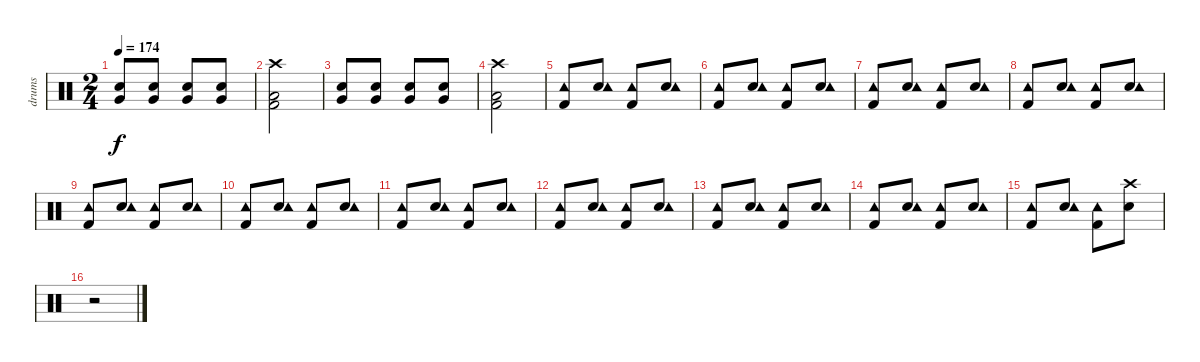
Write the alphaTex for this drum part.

\track ("drums" "drums") {instrument percussion}
\staff {score}
\articulation defaults
\ts (2 4)
\tempo 174
\clef neutral
\ks c
("Snare (hit) 2" "Very Low Tom (hit)").8{dy f} ("Snare (hit) 2" "Very Low Tom (hit)").8 ("Snare (hit) 2" "Very Low Tom (hit)").8 ("Snare (hit) 2" "Very Low Tom (hit)").8 |
("Kick (hit) 2" "Low Floor Tom (hit)" "Crash high (hit)").2 |
("Very Low Tom (hit)" "Snare (hit) 2").8 ("Snare (hit) 2" "Very Low Tom (hit)").8 ("Snare (hit) 2" "Very Low Tom (hit)").8 ("Snare (hit) 2" "Very Low Tom (hit)").8 |
("Crash high (hit)" "Low Floor Tom (hit)" "Kick (hit) 2").2 |
("Kick (hit) 2" "Tambourine (hit)").8 ("Snare (hit) 2" "Tambourine (hit)").8 ("Kick (hit) 2" "Tambourine (hit)").8 ("Snare (hit) 2" "Tambourine (hit)").8 |
("Kick (hit) 2" "Tambourine (hit)").8 ("Snare (hit) 2" "Tambourine (hit)").8 ("Kick (hit) 2" "Tambourine (hit)").8 ("Snare (hit) 2" "Tambourine (hit)").8 |
("Kick (hit) 2" "Tambourine (hit)").8 ("Snare (hit) 2" "Tambourine (hit)").8 ("Kick (hit) 2" "Tambourine (hit)").8 ("Snare (hit) 2" "Tambourine (hit)").8 |
("Kick (hit) 2" "Tambourine (hit)").8 ("Snare (hit) 2" "Tambourine (hit)").8 ("Kick (hit) 2" "Tambourine (hit)").8 ("Snare (hit) 2" "Tambourine (hit)").8 |
("Kick (hit) 2" "Tambourine (hit)").8 ("Snare (hit) 2" "Tambourine (hit)").8 ("Kick (hit) 2" "Tambourine (hit)").8 ("Snare (hit) 2" "Tambourine (hit)").8 |
("Kick (hit) 2" "Tambourine (hit)").8 ("Snare (hit) 2" "Tambourine (hit)").8 ("Kick (hit) 2" "Tambourine (hit)").8 ("Snare (hit) 2" "Tambourine (hit)").8 |
("Kick (hit) 2" "Tambourine (hit)").8 ("Snare (hit) 2" "Tambourine (hit)").8 ("Kick (hit) 2" "Tambourine (hit)").8 ("Snare (hit) 2" "Tambourine (hit)").8 |
("Kick (hit) 2" "Tambourine (hit)").8 ("Snare (hit) 2" "Tambourine (hit)").8 ("Kick (hit) 2" "Tambourine (hit)").8 ("Snare (hit) 2" "Tambourine (hit)").8 |
("Kick (hit) 2" "Tambourine (hit)").8 ("Snare (hit) 2" "Tambourine (hit)").8 ("Kick (hit) 2" "Tambourine (hit)").8 ("Snare (hit) 2" "Tambourine (hit)").8 |
("Kick (hit) 2" "Tambourine (hit)").8 ("Snare (hit) 2" "Tambourine (hit)").8 ("Kick (hit) 2" "Tambourine (hit)").8 ("Snare (hit) 2" "Tambourine (hit)").8 |
("Kick (hit) 2" "Tambourine (hit)").8 ("Snare (hit) 2" "Tambourine (hit)").8 ("Kick (hit) 2" "Tambourine (hit)").8 ("Snare (hit) 2" "Crash high (hit)").8 |
r.2
